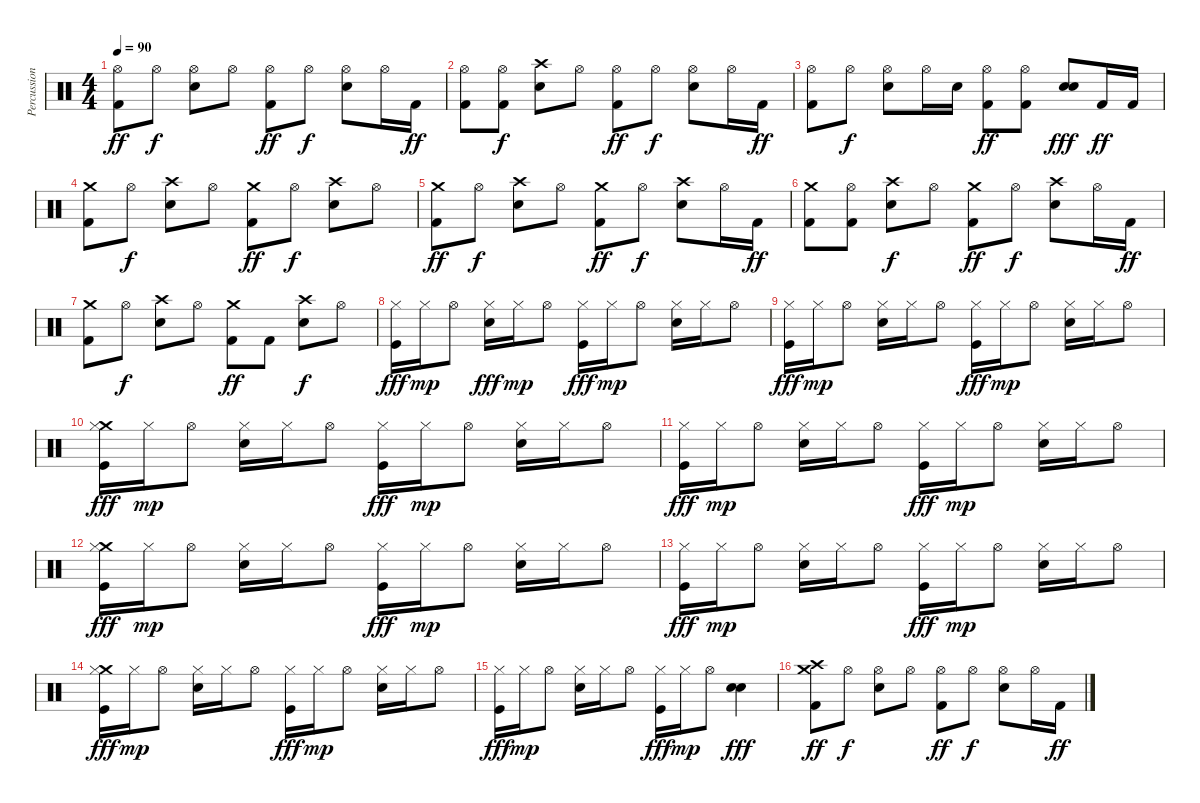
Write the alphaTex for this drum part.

\track ("Percussion" "Percussion") {instrument percussion}
\staff {score}
\articulation defaults
\ts (4 4)
\tempo 90
\clef neutral
\ks c
("Hi-Hat (open)" "Kick (hit) 2").8{dy ff} "Hi-Hat (open)".8{dy f} ("Hi-Hat (open)" "Electric Snare (hit)").8 "Hi-Hat (open)".8 ("Hi-Hat (open)" "Kick (hit) 2").8{dy ff} "Hi-Hat (open)".8{dy f} ("Hi-Hat (open)" "Electric Snare (hit)").8 "Hi-Hat (open)".16 "Kick (hit) 2".16{dy ff} |
("Hi-Hat (open)" "Kick (hit) 2").8 ("Hi-Hat (open)" "Kick (hit) 2").8{dy f} ("Crash high (hit)" "Electric Snare (hit)").8 "Hi-Hat (open)".8 ("Hi-Hat (open)" "Kick (hit) 2").8{dy ff} "Hi-Hat (open)".8{dy f} ("Hi-Hat (open)" "Electric Snare (hit)").8 "Hi-Hat (open)".16 "Kick (hit) 2".16{dy ff} |
("Hi-Hat (open)" "Kick (hit) 2").8 "Hi-Hat (open)".8{dy f} ("Hi-Hat (open)" "Electric Snare (hit)").8 "Hi-Hat (open)".16 "Electric Snare (hit)".16 ("Hi-Hat (open)" "Kick (hit) 2").8{dy ff} ("Hi-Hat (open)" "Kick (hit) 2").8 ("Electric Snare (hit)" "Electric Snare (hit)").8{dy fff} "Kick (hit) 2".16{dy ff} "Kick (hit) 2".16 |
("Crash medium (hit)" "Kick (hit) 2").8 "Hi-Hat (open)".8{dy f} ("Crash high (hit)" "Electric Snare (hit)").8 "Hi-Hat (open)".8 ("Crash medium (hit)" "Kick (hit) 2").8{dy ff} "Hi-Hat (open)".8{dy f} ("Crash high (hit)" "Electric Snare (hit)").8 "Hi-Hat (open)".8 |
("Crash medium (hit)" "Kick (hit) 2").8{dy ff} "Hi-Hat (open)".8{dy f} ("Crash high (hit)" "Electric Snare (hit)").8 "Hi-Hat (open)".8 ("Crash medium (hit)" "Kick (hit) 2").8{dy ff} "Hi-Hat (open)".8{dy f} ("Crash high (hit)" "Electric Snare (hit)").8 "Hi-Hat (open)".16 "Kick (hit) 2".16{dy ff} |
("Crash medium (hit)" "Kick (hit) 2").8 ("Hi-Hat (open)" "Kick (hit) 2").8 ("Crash high (hit)" "Electric Snare (hit)").8{dy f} "Hi-Hat (open)".8 ("Crash medium (hit)" "Kick (hit) 2").8{dy ff} "Hi-Hat (open)".8{dy f} ("Crash high (hit)" "Electric Snare (hit)").8 "Hi-Hat (open)".16 "Kick (hit) 2".16{dy ff} |
("Crash medium (hit)" "Kick (hit) 2").8 "Hi-Hat (open)".8{dy f} ("Crash high (hit)" "Electric Snare (hit)").8 "Hi-Hat (open)".8 ("Crash medium (hit)" "Kick (hit) 2").8{dy ff} "Kick (hit) 2".8 ("Crash high (hit)" "Electric Snare (hit)").8{dy f} "Hi-Hat (open)".8 |
("Hi-Hat (closed)" "Kick (hit)").16{dy fff} "Hi-Hat (closed)".16{dy mp} "Hi-Hat (open)".8 ("Hi-Hat (closed)" "Electric Snare (hit)").16{dy fff} "Hi-Hat (closed)".16{dy mp} "Hi-Hat (open)".8 ("Hi-Hat (closed)" "Kick (hit)").16{dy fff} "Hi-Hat (closed)".16{dy mp} "Hi-Hat (open)".8 ("Hi-Hat (closed)" "Electric Snare (hit)").16 "Hi-Hat (closed)".16 "Hi-Hat (open)".8 |
("Hi-Hat (closed)" "Kick (hit)").16{dy fff} "Hi-Hat (closed)".16{dy mp} "Hi-Hat (open)".8 ("Hi-Hat (closed)" "Electric Snare (hit)").16 "Hi-Hat (closed)".16 "Hi-Hat (open)".8 ("Hi-Hat (closed)" "Kick (hit)").16{dy fff} "Hi-Hat (closed)".16{dy mp} "Hi-Hat (open)".8 ("Hi-Hat (closed)" "Electric Snare (hit)").16 "Hi-Hat (closed)".16 "Hi-Hat (open)".8 |
("Crash medium (hit)" "Hi-Hat (closed)" "Kick (hit)").16{dy fff} "Hi-Hat (closed)".16{dy mp} "Hi-Hat (open)".8 ("Hi-Hat (closed)" "Electric Snare (hit)").16 "Hi-Hat (closed)".16 "Hi-Hat (open)".8 ("Hi-Hat (closed)" "Kick (hit)").16{dy fff} "Hi-Hat (closed)".16{dy mp} "Hi-Hat (open)".8 ("Hi-Hat (closed)" "Electric Snare (hit)").16 "Hi-Hat (closed)".16 "Hi-Hat (open)".8 |
("Hi-Hat (closed)" "Kick (hit)").16{dy fff} "Hi-Hat (closed)".16{dy mp} "Hi-Hat (open)".8 ("Hi-Hat (closed)" "Electric Snare (hit)").16 "Hi-Hat (closed)".16 "Hi-Hat (open)".8 ("Hi-Hat (closed)" "Kick (hit)").16{dy fff} "Hi-Hat (closed)".16{dy mp} "Hi-Hat (open)".8 ("Hi-Hat (closed)" "Electric Snare (hit)").16 "Hi-Hat (closed)".16 "Hi-Hat (open)".8 |
("Crash medium (hit)" "Hi-Hat (closed)" "Kick (hit)").16{dy fff} "Hi-Hat (closed)".16{dy mp} "Hi-Hat (open)".8 ("Hi-Hat (closed)" "Electric Snare (hit)").16 "Hi-Hat (closed)".16 "Hi-Hat (open)".8 ("Hi-Hat (closed)" "Kick (hit)").16{dy fff} "Hi-Hat (closed)".16{dy mp} "Hi-Hat (open)".8 ("Hi-Hat (closed)" "Electric Snare (hit)").16 "Hi-Hat (closed)".16 "Hi-Hat (open)".8 |
("Hi-Hat (closed)" "Kick (hit)").16{dy fff} "Hi-Hat (closed)".16{dy mp} "Hi-Hat (open)".8 ("Hi-Hat (closed)" "Electric Snare (hit)").16 "Hi-Hat (closed)".16 "Hi-Hat (open)".8 ("Hi-Hat (closed)" "Kick (hit)").16{dy fff} "Hi-Hat (closed)".16{dy mp} "Hi-Hat (open)".8 ("Hi-Hat (closed)" "Electric Snare (hit)").16 "Hi-Hat (closed)".16 "Hi-Hat (open)".8 |
("Crash medium (hit)" "Hi-Hat (closed)" "Kick (hit)").16{dy fff} "Hi-Hat (closed)".16{dy mp} "Hi-Hat (open)".8 ("Hi-Hat (closed)" "Electric Snare (hit)").16 "Hi-Hat (closed)".16 "Hi-Hat (open)".8 ("Hi-Hat (closed)" "Kick (hit)").16{dy fff} "Hi-Hat (closed)".16{dy mp} "Hi-Hat (open)".8 ("Hi-Hat (closed)" "Electric Snare (hit)").16 "Hi-Hat (closed)".16 "Hi-Hat (open)".8 |
("Hi-Hat (closed)" "Kick (hit)").16{dy fff} "Hi-Hat (closed)".16{dy mp} "Hi-Hat (open)".8 ("Hi-Hat (closed)" "Electric Snare (hit)").16 "Hi-Hat (closed)".16 "Hi-Hat (open)".8 ("Hi-Hat (closed)" "Kick (hit)").16{dy fff} "Hi-Hat (closed)".16{dy mp} "Hi-Hat (open)".8 ("Electric Snare (hit)" "Electric Snare (hit)").4{dy fff} |
("Crash medium (hit)" "Crash high (hit)" "Kick (hit) 2").8{dy ff} "Hi-Hat (open)".8{dy f} ("Hi-Hat (open)" "Electric Snare (hit)").8 "Hi-Hat (open)".8 ("Hi-Hat (open)" "Kick (hit) 2").8{dy ff} "Hi-Hat (open)".8{dy f} ("Hi-Hat (open)" "Electric Snare (hit)").8 "Hi-Hat (open)".16 "Kick (hit) 2".16{dy ff}
